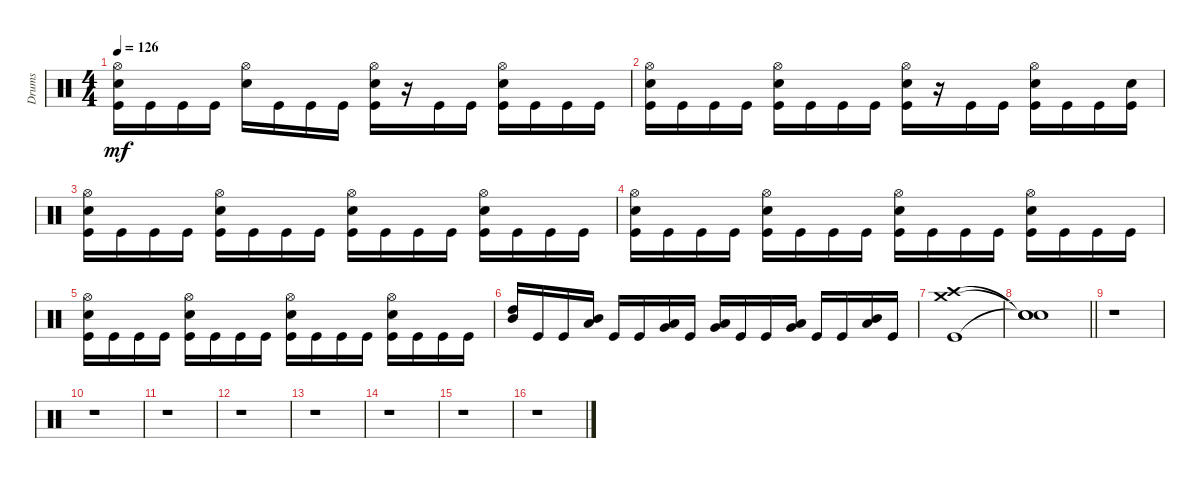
\track ("Drums" "Drums") {instrument percussion bank 127}
\staff {score}
\articulation defaults
\ts (4 4)
\tempo 126
\clef neutral
\ks c
("Hi-Hat (open)" "Snare (hit) 2" "Kick (hit)").16{dy mf} "Kick (hit)".16 "Kick (hit)".16 "Kick (hit)".16 ("Hi-Hat (open)" "Snare (hit) 2").16 "Kick (hit)".16 "Kick (hit)".16 "Kick (hit)".16 ("Hi-Hat (open)" "Snare (hit) 2" "Kick (hit)").16 r.16 "Kick (hit)".16 "Kick (hit)".16 ("Hi-Hat (open)" "Snare (hit) 2" "Kick (hit)").16 "Kick (hit)".16 "Kick (hit)".16 "Kick (hit)".16 |
("Hi-Hat (open)" "Snare (hit) 2" "Kick (hit)").16 "Kick (hit)".16 "Kick (hit)".16 "Kick (hit)".16 ("Hi-Hat (open)" "Snare (hit) 2" "Kick (hit)").16 "Kick (hit)".16 "Kick (hit)".16 "Kick (hit)".16 ("Hi-Hat (open)" "Snare (hit) 2" "Kick (hit)").16 r.16 "Kick (hit)".16 "Kick (hit)".16 ("Hi-Hat (open)" "Snare (hit) 2" "Kick (hit)").16 "Kick (hit)".16 "Kick (hit)".16 ("Snare (hit) 2" "Kick (hit)").16 |
("Hi-Hat (open)" "Snare (hit) 2" "Kick (hit)").16 "Kick (hit)".16 "Kick (hit)".16 "Kick (hit)".16 ("Hi-Hat (open)" "Snare (hit) 2" "Kick (hit)").16 "Kick (hit)".16 "Kick (hit)".16 "Kick (hit)".16 ("Hi-Hat (open)" "Snare (hit) 2" "Kick (hit)").16 "Kick (hit)".16 "Kick (hit)".16 "Kick (hit)".16 ("Hi-Hat (open)" "Snare (hit) 2" "Kick (hit)").16 "Kick (hit)".16 "Kick (hit)".16 "Kick (hit)".16 |
("Hi-Hat (open)" "Snare (hit) 2" "Kick (hit)").16 "Kick (hit)".16 "Kick (hit)".16 "Kick (hit)".16 ("Hi-Hat (open)" "Snare (hit) 2" "Kick (hit)").16 "Kick (hit)".16 "Kick (hit)".16 "Kick (hit)".16 ("Hi-Hat (open)" "Snare (hit) 2" "Kick (hit)").16 "Kick (hit)".16 "Kick (hit)".16 "Kick (hit)".16 ("Hi-Hat (open)" "Snare (hit) 2" "Kick (hit)").16 "Kick (hit)".16 "Kick (hit)".16 "Kick (hit)".16 |
("Hi-Hat (open)" "Snare (hit) 2" "Kick (hit)").16 "Kick (hit)".16 "Kick (hit)".16 "Kick (hit)".16 ("Hi-Hat (open)" "Snare (hit) 2" "Kick (hit)").16 "Kick (hit)".16 "Kick (hit)".16 "Kick (hit)".16 ("Hi-Hat (open)" "Snare (hit) 2" "Kick (hit)").16 "Kick (hit)".16 "Kick (hit)".16 "Kick (hit)".16 ("Hi-Hat (open)" "Snare (hit) 2" "Kick (hit)").16 "Kick (hit)".16 "Kick (hit)".16 "Kick (hit)".16 |
("High Tom (hit)" "Mid Tom (hit)").16 "Kick (hit)".16 "Kick (hit)".16 ("Mid Tom (hit)" "Low Tom (hit)").16 "Kick (hit)".16 "Kick (hit)".16 ("Low Tom (hit)" "Very Low Tom (hit)").16 "Kick (hit)".16 ("Very Low Tom (hit)" "Low Floor Tom (hit)").16 "Kick (hit)".16 "Kick (hit)".16 ("Low Tom (hit)" "Very Low Tom (hit)").16 "Kick (hit)".16 "Kick (hit)".16 ("Mid Tom (hit)" "Low Tom (hit)").16 "Kick (hit)".16 |
("Crash medium (hit)" "Crash high (hit)" "Kick (hit)").1 |
\barLineRight lightlight
("Snare (hit)"{t} "Snare (hit)"{t} "Snare (hit)"{t}).1 |
r.1 |
r.1 |
r.1 |
r.1 |
r.1 |
r.1 |
r.1 |
r.1
